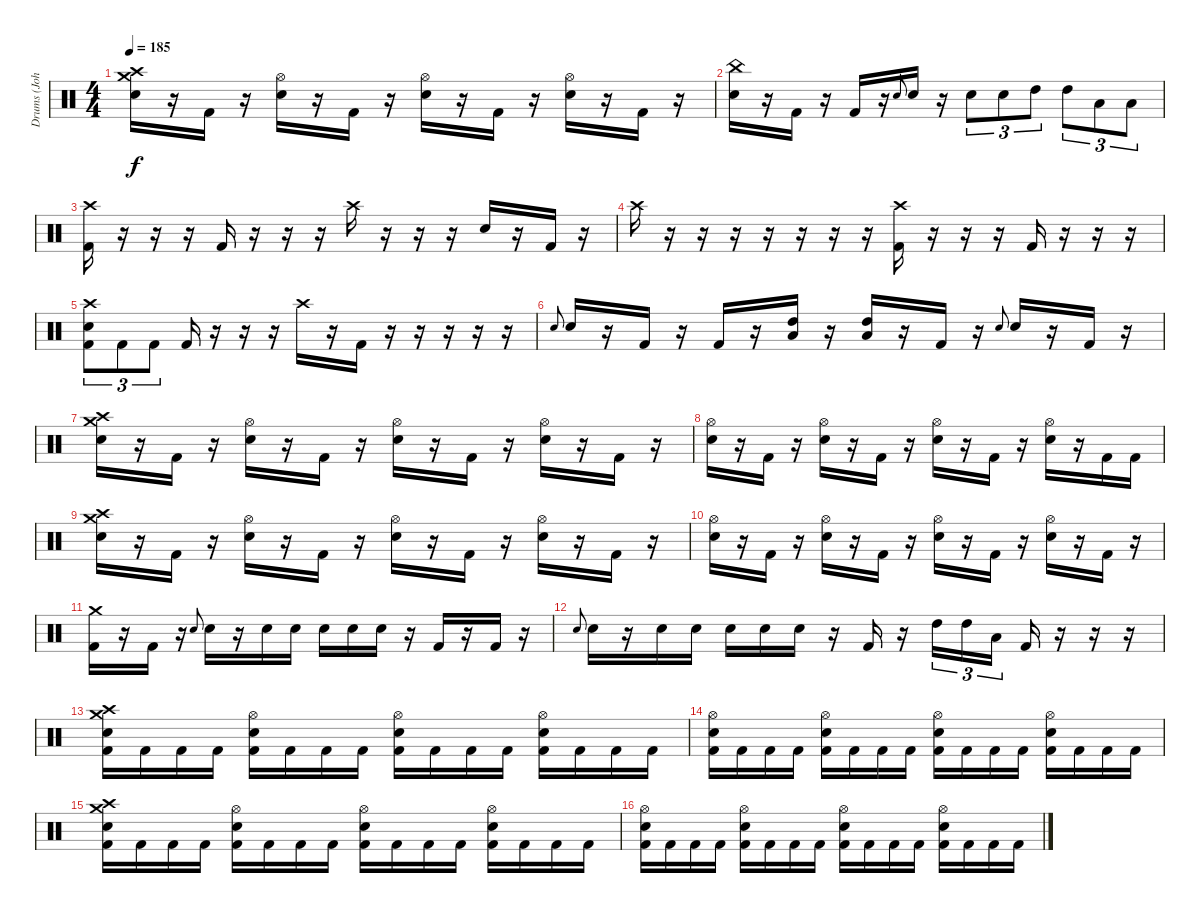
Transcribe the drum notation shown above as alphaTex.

\track ("Drums (Johno)" "Drums (Joh") {instrument percussion}
\staff {score}
\articulation defaults
\ts (4 4)
\tempo 185
\clef neutral
\ks c
("Crash medium (hit)" "Crash high (hit)" "Electric Snare (hit)").16{dy f} r.16 "Kick (hit) 2".16 r.16 ("Hi-Hat (open)" "Electric Snare (hit)").16 r.16 "Kick (hit) 2".16 r.16 ("Hi-Hat (open)" "Electric Snare (hit)").16 r.16 "Kick (hit) 2".16 r.16 ("Hi-Hat (open)" "Electric Snare (hit)").16 r.16 "Kick (hit) 2".16 r.16 |
("China (hit)" "Electric Snare (hit)").16 r.16 "Kick (hit) 2".16 r.16 "Kick (hit) 2".16 r.16 "Electric Snare (hit)".8{gr onbeat} "Electric Snare (hit)".16 r.16 "Electric Snare (hit)".8{tu (3 2)} "Electric Snare (hit)".8{tu (3 2)} "High Tom (hit)".8{tu (3 2)} "High Tom (hit)".8{tu (3 2)} "Low Floor Tom (hit)".8{tu (3 2)} "Low Floor Tom (hit)".8{tu (3 2)} |
("Crash high (hit)" "Kick (hit) 2").16 r.16 r.16 r.16 "Kick (hit) 2".16 r.16 r.16 r.16 "Crash high (hit)".16 r.16 r.16 r.16 "Electric Snare (hit)".16 r.16 "Kick (hit) 2".16 r.16 |
"Crash high (hit)".16 r.16 r.16 r.16 r.16 r.16 r.16 r.16 ("Crash high (hit)" "Kick (hit) 2").16 r.16 r.16 r.16 "Kick (hit) 2".16 r.16 r.16 r.16 |
("Crash high (hit)" "Electric Snare (hit)" "Kick (hit) 2").8{tu (3 2)} "Kick (hit) 2".8{tu (3 2)} "Kick (hit) 2".8{tu (3 2)} "Kick (hit) 2".16 r.16 r.16 r.16 "Crash high (hit)".16 r.16 "Kick (hit) 2".16 r.16 r.16 r.16 r.16 r.16 |
"Electric Snare (hit)".8{gr onbeat} "Electric Snare (hit)".16 r.16 "Kick (hit) 2".16 r.16 "Kick (hit) 2".16 r.16 ("Low Floor Tom (hit)" "High Tom (hit)").16 r.16 ("Low Floor Tom (hit)" "High Tom (hit)").16 r.16 "Kick (hit) 2".16 r.16 "Electric Snare (hit)".8{gr onbeat} "Electric Snare (hit)".16 r.16 "Kick (hit) 2".16 r.16 |
("Crash medium (hit)" "Crash high (hit)" "Electric Snare (hit)").16 r.16 "Kick (hit) 2".16 r.16 ("Hi-Hat (open)" "Electric Snare (hit)").16 r.16 "Kick (hit) 2".16 r.16 ("Hi-Hat (open)" "Electric Snare (hit)").16 r.16 "Kick (hit) 2".16 r.16 ("Hi-Hat (open)" "Electric Snare (hit)").16 r.16 "Kick (hit) 2".16 r.16 |
("Hi-Hat (open)" "Electric Snare (hit)").16 r.16 "Kick (hit) 2".16 r.16 ("Hi-Hat (open)" "Electric Snare (hit)").16 r.16 "Kick (hit) 2".16 r.16 ("Hi-Hat (open)" "Electric Snare (hit)").16 r.16 "Kick (hit) 2".16 r.16 ("Hi-Hat (open)" "Electric Snare (hit)").16 r.16 "Kick (hit) 2".16 "Kick (hit) 2".16 |
("Crash high (hit)" "Crash medium (hit)" "Electric Snare (hit)").16 r.16 "Kick (hit) 2".16 r.16 ("Hi-Hat (open)" "Electric Snare (hit)").16 r.16 "Kick (hit) 2".16 r.16 ("Hi-Hat (open)" "Electric Snare (hit)").16 r.16 "Kick (hit) 2".16 r.16 ("Hi-Hat (open)" "Electric Snare (hit)").16 r.16 "Kick (hit) 2".16 r.16 |
("Hi-Hat (open)" "Electric Snare (hit)").16 r.16 "Kick (hit) 2".16 r.16 ("Hi-Hat (open)" "Electric Snare (hit)").16 r.16 "Kick (hit) 2".16 r.16 ("Hi-Hat (open)" "Electric Snare (hit)").16 r.16 "Kick (hit) 2".16 r.16 ("Hi-Hat (open)" "Electric Snare (hit)").16 r.16 "Kick (hit) 2".16 r.16 |
("Crash medium (hit)" "Kick (hit) 2").16 r.16 "Kick (hit) 2".16 r.16 "Electric Snare (hit)".8{gr onbeat} "Electric Snare (hit)".16 r.16 "Electric Snare (hit)".16 "Electric Snare (hit)".16 "Electric Snare (hit)".16 "Electric Snare (hit)".16 "Electric Snare (hit)".16 r.16 "Kick (hit) 2".16 r.16 "Kick (hit) 2".16 r.16 |
"Electric Snare (hit)".8{gr onbeat} "Electric Snare (hit)".16 r.16 "Electric Snare (hit)".16 "Electric Snare (hit)".16 "Electric Snare (hit)".16 "Electric Snare (hit)".16 "Electric Snare (hit)".16 r.16 "Kick (hit) 2".16 r.16 "High Tom (hit)".16{tu (3 2)} "High Tom (hit)".16{tu (3 2)} "Low Floor Tom (hit)".16{tu (3 2)} "Kick (hit) 2".16 r.16 r.16 r.16 |
("Crash medium (hit)" "Crash high (hit)" "Electric Snare (hit)" "Kick (hit) 2").16 "Kick (hit) 2".16 "Kick (hit) 2".16 "Kick (hit) 2".16 ("Hi-Hat (open)" "Electric Snare (hit)" "Kick (hit) 2").16 "Kick (hit) 2".16 "Kick (hit) 2".16 "Kick (hit) 2".16 ("Hi-Hat (open)" "Electric Snare (hit)" "Kick (hit) 2").16 "Kick (hit) 2".16 "Kick (hit) 2".16 "Kick (hit) 2".16 ("Hi-Hat (open)" "Electric Snare (hit)" "Kick (hit) 2").16 "Kick (hit) 2".16 "Kick (hit) 2".16 "Kick (hit) 2".16 |
("Hi-Hat (open)" "Electric Snare (hit)" "Kick (hit) 2").16 "Kick (hit) 2".16 "Kick (hit) 2".16 "Kick (hit) 2".16 ("Hi-Hat (open)" "Electric Snare (hit)" "Kick (hit) 2").16 "Kick (hit) 2".16 "Kick (hit) 2".16 "Kick (hit) 2".16 ("Hi-Hat (open)" "Electric Snare (hit)" "Kick (hit) 2").16 "Kick (hit) 2".16 "Kick (hit) 2".16 "Kick (hit) 2".16 ("Hi-Hat (open)" "Electric Snare (hit)" "Kick (hit) 2").16 "Kick (hit) 2".16 "Kick (hit) 2".16 "Kick (hit) 2".16 |
("Crash high (hit)" "Crash medium (hit)" "Electric Snare (hit)" "Kick (hit) 2").16 "Kick (hit) 2".16 "Kick (hit) 2".16 "Kick (hit) 2".16 ("Hi-Hat (open)" "Electric Snare (hit)" "Kick (hit) 2").16 "Kick (hit) 2".16 "Kick (hit) 2".16 "Kick (hit) 2".16 ("Hi-Hat (open)" "Electric Snare (hit)" "Kick (hit) 2").16 "Kick (hit) 2".16 "Kick (hit) 2".16 "Kick (hit) 2".16 ("Hi-Hat (open)" "Electric Snare (hit)" "Kick (hit) 2").16 "Kick (hit) 2".16 "Kick (hit) 2".16 "Kick (hit) 2".16 |
("Hi-Hat (open)" "Electric Snare (hit)" "Kick (hit) 2").16 "Kick (hit) 2".16 "Kick (hit) 2".16 "Kick (hit) 2".16 ("Hi-Hat (open)" "Electric Snare (hit)" "Kick (hit) 2").16 "Kick (hit) 2".16 "Kick (hit) 2".16 "Kick (hit) 2".16 ("Hi-Hat (open)" "Electric Snare (hit)" "Kick (hit) 2").16 "Kick (hit) 2".16 "Kick (hit) 2".16 "Kick (hit) 2".16 ("Hi-Hat (open)" "Electric Snare (hit)" "Kick (hit) 2").16 "Kick (hit) 2".16 "Kick (hit) 2".16 "Kick (hit) 2".16
